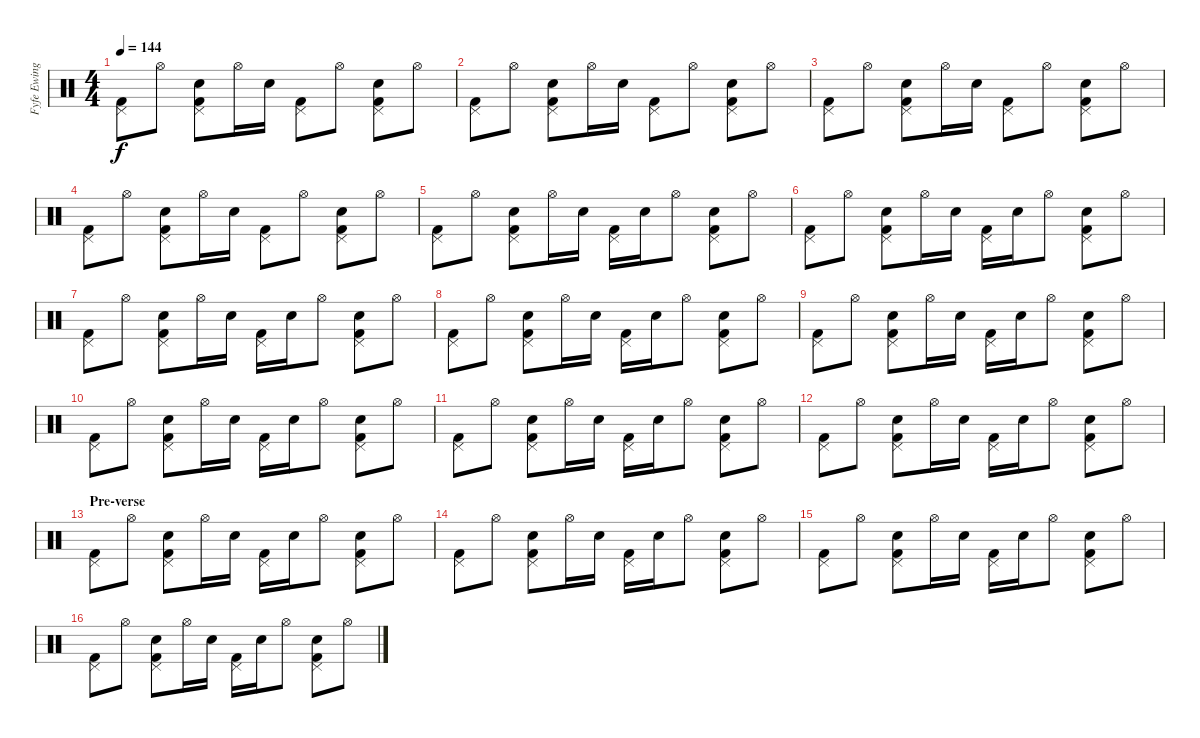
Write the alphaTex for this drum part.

\track ("Fyfe Ewing" "Fyfe Ewing") {instrument percussion}
\staff {score}
\articulation defaults
\ts (4 4)
\tempo 144
\clef neutral
\ks c
("Pedal Hi-Hat (hit)" "Kick (hit) 2").8{dy f} "Hi-Hat (open)".8 ("Pedal Hi-Hat (hit)" "Snare (hit) 2" "Kick (hit) 2").8 "Hi-Hat (open)".16 "Snare (hit) 2".16 ("Pedal Hi-Hat (hit)" "Kick (hit) 2").8 "Hi-Hat (open)".8 ("Pedal Hi-Hat (hit)" "Snare (hit) 2" "Kick (hit) 2").8 "Hi-Hat (open)".8 |
("Pedal Hi-Hat (hit)" "Kick (hit) 2").8 "Hi-Hat (open)".8 ("Pedal Hi-Hat (hit)" "Snare (hit) 2" "Kick (hit) 2").8 "Hi-Hat (open)".16 "Snare (hit) 2".16 ("Pedal Hi-Hat (hit)" "Kick (hit) 2").8 "Hi-Hat (open)".8 ("Pedal Hi-Hat (hit)" "Snare (hit) 2" "Kick (hit) 2").8 "Hi-Hat (open)".8 |
("Pedal Hi-Hat (hit)" "Kick (hit) 2").8 "Hi-Hat (open)".8 ("Pedal Hi-Hat (hit)" "Snare (hit) 2" "Kick (hit) 2").8 "Hi-Hat (open)".16 "Snare (hit) 2".16 ("Pedal Hi-Hat (hit)" "Kick (hit) 2").8 "Hi-Hat (open)".8 ("Pedal Hi-Hat (hit)" "Snare (hit) 2" "Kick (hit) 2").8 "Hi-Hat (open)".8 |
("Pedal Hi-Hat (hit)" "Kick (hit) 2").8 "Hi-Hat (open)".8 ("Pedal Hi-Hat (hit)" "Snare (hit) 2" "Kick (hit) 2").8 "Hi-Hat (open)".16 "Snare (hit) 2".16 ("Pedal Hi-Hat (hit)" "Kick (hit) 2").8 "Hi-Hat (open)".8 ("Pedal Hi-Hat (hit)" "Snare (hit) 2" "Kick (hit) 2").8 "Hi-Hat (open)".8 |
("Pedal Hi-Hat (hit)" "Kick (hit) 2").8 "Hi-Hat (open)".8 ("Pedal Hi-Hat (hit)" "Snare (hit) 2" "Kick (hit) 2").8 "Hi-Hat (open)".16 "Snare (hit) 2".16 ("Pedal Hi-Hat (hit)" "Kick (hit) 2").16 "Snare (hit) 2".16 "Hi-Hat (open)".8 ("Pedal Hi-Hat (hit)" "Snare (hit) 2" "Kick (hit) 2").8 "Hi-Hat (open)".8 |
("Pedal Hi-Hat (hit)" "Kick (hit) 2").8 "Hi-Hat (open)".8 ("Pedal Hi-Hat (hit)" "Snare (hit) 2" "Kick (hit) 2").8 "Hi-Hat (open)".16 "Snare (hit) 2".16 ("Pedal Hi-Hat (hit)" "Kick (hit) 2").16 "Snare (hit) 2".16 "Hi-Hat (open)".8 ("Pedal Hi-Hat (hit)" "Snare (hit) 2" "Kick (hit) 2").8 "Hi-Hat (open)".8 |
("Pedal Hi-Hat (hit)" "Kick (hit) 2").8 "Hi-Hat (open)".8 ("Pedal Hi-Hat (hit)" "Snare (hit) 2" "Kick (hit) 2").8 "Hi-Hat (open)".16 "Snare (hit) 2".16 ("Pedal Hi-Hat (hit)" "Kick (hit) 2").16 "Snare (hit) 2".16 "Hi-Hat (open)".8 ("Pedal Hi-Hat (hit)" "Snare (hit) 2" "Kick (hit) 2").8 "Hi-Hat (open)".8 |
("Pedal Hi-Hat (hit)" "Kick (hit) 2").8 "Hi-Hat (open)".8 ("Pedal Hi-Hat (hit)" "Snare (hit) 2" "Kick (hit) 2").8 "Hi-Hat (open)".16 "Snare (hit) 2".16 ("Pedal Hi-Hat (hit)" "Kick (hit) 2").16 "Snare (hit) 2".16 "Hi-Hat (open)".8 ("Pedal Hi-Hat (hit)" "Snare (hit) 2" "Kick (hit) 2").8 "Hi-Hat (open)".8 |
("Pedal Hi-Hat (hit)" "Kick (hit) 2").8 "Hi-Hat (open)".8 ("Pedal Hi-Hat (hit)" "Snare (hit) 2" "Kick (hit) 2").8 "Hi-Hat (open)".16 "Snare (hit) 2".16 ("Pedal Hi-Hat (hit)" "Kick (hit) 2").16 "Snare (hit) 2".16 "Hi-Hat (open)".8 ("Pedal Hi-Hat (hit)" "Snare (hit) 2" "Kick (hit) 2").8 "Hi-Hat (open)".8 |
("Pedal Hi-Hat (hit)" "Kick (hit) 2").8 "Hi-Hat (open)".8 ("Pedal Hi-Hat (hit)" "Snare (hit) 2" "Kick (hit) 2").8 "Hi-Hat (open)".16 "Snare (hit) 2".16 ("Pedal Hi-Hat (hit)" "Kick (hit) 2").16 "Snare (hit) 2".16 "Hi-Hat (open)".8 ("Pedal Hi-Hat (hit)" "Snare (hit) 2" "Kick (hit) 2").8 "Hi-Hat (open)".8 |
("Pedal Hi-Hat (hit)" "Kick (hit) 2").8 "Hi-Hat (open)".8 ("Pedal Hi-Hat (hit)" "Snare (hit) 2" "Kick (hit) 2").8 "Hi-Hat (open)".16 "Snare (hit) 2".16 ("Pedal Hi-Hat (hit)" "Kick (hit) 2").16 "Snare (hit) 2".16 "Hi-Hat (open)".8 ("Pedal Hi-Hat (hit)" "Snare (hit) 2" "Kick (hit) 2").8 "Hi-Hat (open)".8 |
("Pedal Hi-Hat (hit)" "Kick (hit) 2").8 "Hi-Hat (open)".8 ("Pedal Hi-Hat (hit)" "Snare (hit) 2" "Kick (hit) 2").8 "Hi-Hat (open)".16 "Snare (hit) 2".16 ("Pedal Hi-Hat (hit)" "Kick (hit) 2").16 "Snare (hit) 2".16 "Hi-Hat (open)".8 ("Pedal Hi-Hat (hit)" "Snare (hit) 2" "Kick (hit) 2").8 "Hi-Hat (open)".8 |
\section ("" "Pre-verse")
("Pedal Hi-Hat (hit)" "Kick (hit) 2").8 "Hi-Hat (open)".8 ("Pedal Hi-Hat (hit)" "Snare (hit) 2" "Kick (hit) 2").8 "Hi-Hat (open)".16 "Snare (hit) 2".16 ("Pedal Hi-Hat (hit)" "Kick (hit) 2").16 "Snare (hit) 2".16 "Hi-Hat (open)".8 ("Pedal Hi-Hat (hit)" "Snare (hit) 2" "Kick (hit) 2").8 "Hi-Hat (open)".8 |
("Pedal Hi-Hat (hit)" "Kick (hit) 2").8 "Hi-Hat (open)".8 ("Pedal Hi-Hat (hit)" "Snare (hit) 2" "Kick (hit) 2").8 "Hi-Hat (open)".16 "Snare (hit) 2".16 ("Pedal Hi-Hat (hit)" "Kick (hit) 2").16 "Snare (hit) 2".16 "Hi-Hat (open)".8 ("Pedal Hi-Hat (hit)" "Snare (hit) 2" "Kick (hit) 2").8 "Hi-Hat (open)".8 |
("Pedal Hi-Hat (hit)" "Kick (hit) 2").8 "Hi-Hat (open)".8 ("Pedal Hi-Hat (hit)" "Snare (hit) 2" "Kick (hit) 2").8 "Hi-Hat (open)".16 "Snare (hit) 2".16 ("Pedal Hi-Hat (hit)" "Kick (hit) 2").16 "Snare (hit) 2".16 "Hi-Hat (open)".8 ("Pedal Hi-Hat (hit)" "Snare (hit) 2" "Kick (hit) 2").8 "Hi-Hat (open)".8 |
("Pedal Hi-Hat (hit)" "Kick (hit) 2").8 "Hi-Hat (open)".8 ("Pedal Hi-Hat (hit)" "Snare (hit) 2" "Kick (hit) 2").8 "Hi-Hat (open)".16 "Snare (hit) 2".16 ("Pedal Hi-Hat (hit)" "Kick (hit) 2").16 "Snare (hit) 2".16 "Hi-Hat (open)".8 ("Pedal Hi-Hat (hit)" "Snare (hit) 2" "Kick (hit) 2").8 "Hi-Hat (open)".8
